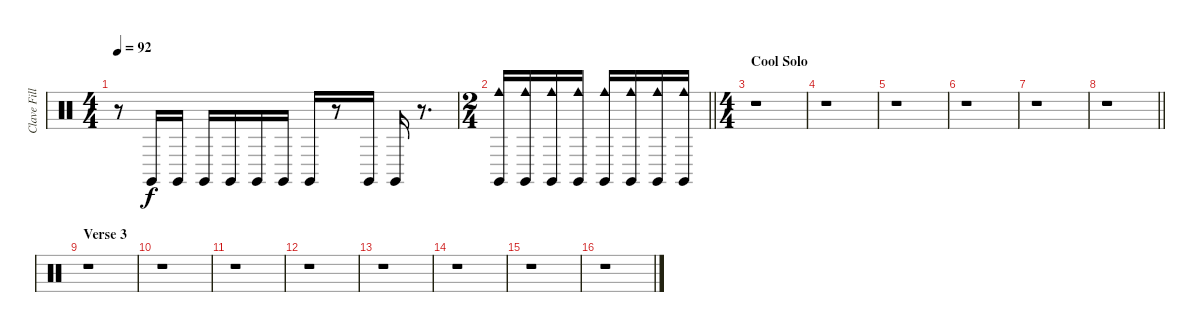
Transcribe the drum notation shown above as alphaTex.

\track ("Clave Fills" "Clave Fill") {instrument percussion}
\staff {score}
\articulation defaults
\ts (4 4)
\tempo 92
\clef neutral
\ks c
r.8{dy f} "Claves (hit)".16 "Claves (hit)".16 "Claves (hit)".16 "Claves (hit)".16 "Claves (hit)".16 "Claves (hit)".16 "Claves (hit)".16 r.8 "Claves (hit)".16 "Claves (hit)".16 r.8{d} |
\ts (2 4)
\barLineRight lightlight
("Claves (hit)" "Cowbell medium (hit)").16 ("Claves (hit)" "Cowbell medium (hit)").16 ("Claves (hit)" "Cowbell medium (hit)").16 ("Claves (hit)" "Cowbell medium (hit)").16 ("Claves (hit)" "Cowbell medium (hit)").16 ("Claves (hit)" "Cowbell medium (hit)").16 ("Claves (hit)" "Cowbell medium (hit)").16 ("Claves (hit)" "Cowbell medium (hit)").16 |
\ts (4 4)
\section ("" "Cool Solo")
r.1 |
r.1 |
r.1 |
r.1 |
r.1 |
\barLineRight lightlight
r.1 |
\section ("" "Verse 3")
r.1 |
r.1 |
r.1 |
r.1 |
r.1 |
r.1 |
r.1 |
r.1
